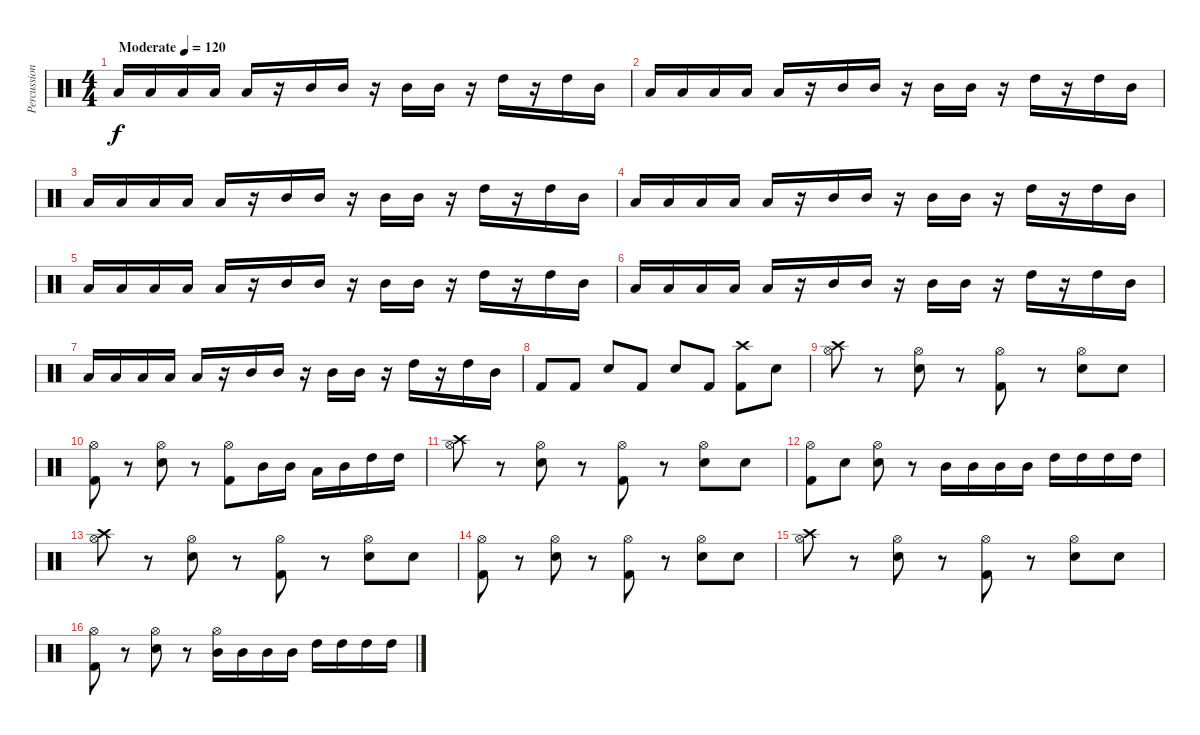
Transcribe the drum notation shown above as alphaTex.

\track ("Percussion" "Percussion") {instrument percussion}
\staff {score}
\articulation defaults
\ts (4 4)
\tempo (120 "Moderate")
\clef neutral
\ks c "Low Floor Tom (hit)".16{dy f} "Low Floor Tom (hit)".16 "Low Floor Tom (hit)".16 "Low Floor Tom (hit)".16 "Low Floor Tom (hit)".16
r.16 "Mid Tom (hit)".16 "Mid Tom (hit)".16 r.16 "Mid Tom (hit)".16 "Mid Tom (hit)".16 r.16 "High Tom (hit)".16 r.16 "High Tom (hit)".16 "Mid Tom (hit)".16 |
"Low Floor Tom (hit)".16 "Low Floor Tom (hit)".16 "Low Floor Tom (hit)".16 "Low Floor Tom (hit)".16 "Low Floor Tom (hit)".16 r.16 "Mid Tom (hit)".16 "Mid Tom (hit)".16 r.16 "Mid Tom (hit)".16 "Mid Tom (hit)".16 r.16 "High Tom (hit)".16 r.16 "High Tom (hit)".16 "Mid Tom (hit)".16 |
"Low Floor Tom (hit)".16 "Low Floor Tom (hit)".16 "Low Floor Tom (hit)".16 "Low Floor Tom (hit)".16 "Low Floor Tom (hit)".16 r.16 "Mid Tom (hit)".16 "Mid Tom (hit)".16 r.16 "Mid Tom (hit)".16 "Mid Tom (hit)".16 r.16 "High Tom (hit)".16 r.16 "High Tom (hit)".16 "Mid Tom (hit)".16 |
"Low Floor Tom (hit)".16 "Low Floor Tom (hit)".16 "Low Floor Tom (hit)".16 "Low Floor Tom (hit)".16 "Low Floor Tom (hit)".16 r.16 "Mid Tom (hit)".16 "Mid Tom (hit)".16 r.16 "Mid Tom (hit)".16 "Mid Tom (hit)".16 r.16 "High Tom (hit)".16 r.16 "High Tom (hit)".16 "Mid Tom (hit)".16 |
"Low Floor Tom (hit)".16 "Low Floor Tom (hit)".16 "Low Floor Tom (hit)".16 "Low Floor Tom (hit)".16 "Low Floor Tom (hit)".16 r.16 "Mid Tom (hit)".16 "Mid Tom (hit)".16 r.16 "Mid Tom (hit)".16 "Mid Tom (hit)".16 r.16 "High Tom (hit)".16 r.16 "High Tom (hit)".16 "Mid Tom (hit)".16 |
"Low Floor Tom (hit)".16 "Low Floor Tom (hit)".16 "Low Floor Tom (hit)".16 "Low Floor Tom (hit)".16 "Low Floor Tom (hit)".16 r.16 "Mid Tom (hit)".16 "Mid Tom (hit)".16 r.16 "Mid Tom (hit)".16 "Mid Tom (hit)".16 r.16 "High Tom (hit)".16 r.16 "High Tom (hit)".16 "Mid Tom (hit)".16 |
"Low Floor Tom (hit)".16 "Low Floor Tom (hit)".16 "Low Floor Tom (hit)".16 "Low Floor Tom (hit)".16 "Low Floor Tom (hit)".16 r.16 "Mid Tom (hit)".16 "Mid Tom (hit)".16 r.16 "Mid Tom (hit)".16 "Mid Tom (hit)".16 r.16 "High Tom (hit)".16 r.16 "High Tom (hit)".16 "Mid Tom (hit)".16 |
"Kick (hit) 2".8 "Kick (hit) 2".8 "Snare (hit) 2".8 "Kick (hit) 2".8 "Snare (hit) 2".8 "Kick (hit) 2".8 ("Kick (hit) 2" "Crash high (hit)").8 "Snare (hit)".8 |
("Crash high (hit)" "Hi-Hat (open)").8 r.8 ("Snare (hit) 2" "Hi-Hat (open)").8 r.8 ("Kick (hit) 2" "Hi-Hat (open)").8 r.8 ("Snare (hit) 2" "Hi-Hat (open)").8 "Snare (hit)".8 |
("Kick (hit) 2" "Hi-Hat (open)").8 r.8 ("Snare (hit) 2" "Hi-Hat (open)").8 r.8 ("Kick (hit) 2" "Hi-Hat (open)").8 "Mid Tom (hit)".16 "Mid Tom (hit)".16 "Low Floor Tom (hit)".16 "Mid Tom (hit)".16 "High Tom (hit)".16 "High Tom (hit)".16 |
("Crash high (hit)" "Hi-Hat (open)").8 r.8 ("Snare (hit) 2" "Hi-Hat (open)").8 r.8 ("Kick (hit) 2" "Hi-Hat (open)").8 r.8 ("Snare (hit) 2" "Hi-Hat (open)").8 "Snare (hit)".8 |
("Kick (hit) 2" "Hi-Hat (open)").8 "Snare (hit)".8 ("Snare (hit) 2" "Hi-Hat (open)").8 r.8 "Mid Tom (hit)".16 "Mid Tom (hit)".16 "Mid Tom (hit)".16 "Mid Tom (hit)".16 "High Tom (hit)".16 "High Tom (hit)".16 "High Tom (hit)".16 "High Tom (hit)".16 |
("Crash high (hit)" "Hi-Hat (open)").8 r.8 ("Snare (hit) 2" "Hi-Hat (open)").8 r.8 ("Kick (hit) 2" "Hi-Hat (open)").8 r.8 ("Snare (hit) 2" "Hi-Hat (open)").8 "Snare (hit)".8 |
("Kick (hit) 2" "Hi-Hat (open)").8 r.8 ("Electric Snare (hit)" "Hi-Hat (open)").8 r.8 ("Kick (hit) 2" "Hi-Hat (open)").8 r.8 ("Snare (hit) 2" "Hi-Hat (open)").8 "Snare (hit)".8 |
("Crash high (hit)" "Hi-Hat (open)").8 r.8 ("Electric Snare (hit)" "Hi-Hat (open)").8 r.8 ("Kick (hit) 2" "Hi-Hat (open)").8 r.8 ("Snare (hit) 2" "Hi-Hat (open)").8 "Snare (hit)".8 |
("Kick (hit) 2" "Hi-Hat (open)").8 r.8 ("Snare (hit) 2" "Hi-Hat (open)").8 r.8 ("Mid Tom (hit)" "Hi-Hat (open)").16 "Mid Tom (hit)".16 "Mid Tom (hit)".16 "Mid Tom (hit)".16 "High Tom (hit)".16 "High Tom (hit)".16 "High Tom (hit)".16 "High Tom (hit)".16
